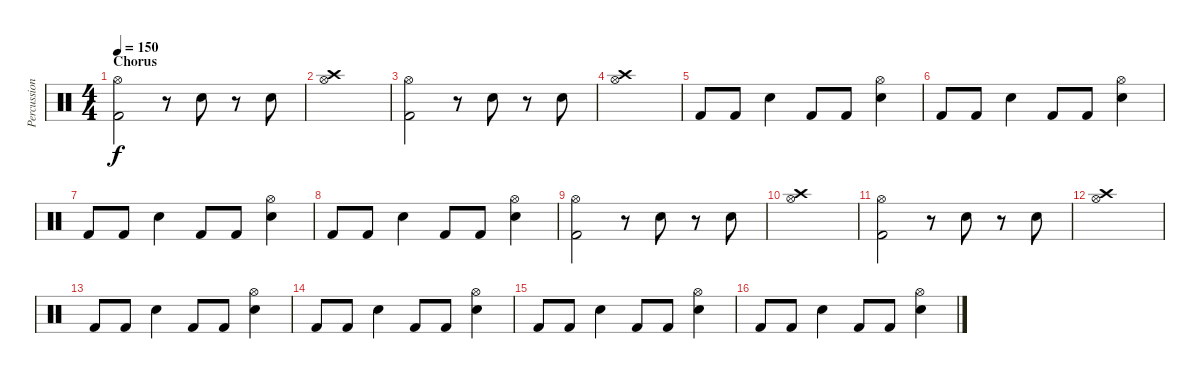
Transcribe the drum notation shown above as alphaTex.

\track ("Percussion" "Percussion") {instrument percussion}
\staff {score}
\articulation defaults
\ts (4 4)
\section ("" "Chorus")
\tempo 150
\clef neutral
\ks c
("Hi-Hat (open)" "Kick (hit) 2").2{dy f} r.8 "Electric Snare (hit)".8 r.8 "Electric Snare (hit)".8 |
("Crash high (hit)" "Hi-Hat (open)").1 |
("Hi-Hat (open)" "Kick (hit) 2").2 r.8 "Electric Snare (hit)".8 r.8 "Electric Snare (hit)".8 |
("Crash high (hit)" "Hi-Hat (open)").1 |
"Kick (hit) 2".8 "Kick (hit) 2".8 "Electric Snare (hit)".4 "Kick (hit) 2".8 "Kick (hit) 2".8 ("Hi-Hat (open)" "Electric Snare (hit)").4 |
"Kick (hit) 2".8 "Kick (hit) 2".8 "Electric Snare (hit)".4 "Kick (hit) 2".8 "Kick (hit) 2".8 ("Hi-Hat (open)" "Electric Snare (hit)").4 |
"Kick (hit) 2".8 "Kick (hit) 2".8 "Electric Snare (hit)".4 "Kick (hit) 2".8 "Kick (hit) 2".8 ("Hi-Hat (open)" "Electric Snare (hit)").4 |
"Kick (hit) 2".8 "Kick (hit) 2".8 "Electric Snare (hit)".4 "Kick (hit) 2".8 "Kick (hit) 2".8 ("Hi-Hat (open)" "Electric Snare (hit)").4 |
("Hi-Hat (open)" "Kick (hit) 2").2 r.8 "Electric Snare (hit)".8 r.8 "Electric Snare (hit)".8 |
("Crash high (hit)" "Hi-Hat (open)").1 |
("Hi-Hat (open)" "Kick (hit) 2").2 r.8 "Electric Snare (hit)".8 r.8 "Electric Snare (hit)".8 |
("Crash high (hit)" "Hi-Hat (open)").1 |
"Kick (hit) 2".8 "Kick (hit) 2".8 "Electric Snare (hit)".4 "Kick (hit) 2".8 "Kick (hit) 2".8 ("Hi-Hat (open)" "Electric Snare (hit)").4 |
"Kick (hit) 2".8 "Kick (hit) 2".8 "Electric Snare (hit)".4 "Kick (hit) 2".8 "Kick (hit) 2".8 ("Hi-Hat (open)" "Electric Snare (hit)").4 |
"Kick (hit) 2".8 "Kick (hit) 2".8 "Electric Snare (hit)".4 "Kick (hit) 2".8 "Kick (hit) 2".8 ("Hi-Hat (open)" "Electric Snare (hit)").4 |
"Kick (hit) 2".8 "Kick (hit) 2".8 "Electric Snare (hit)".4 "Kick (hit) 2".8 "Kick (hit) 2".8 ("Hi-Hat (open)" "Electric Snare (hit)").4
